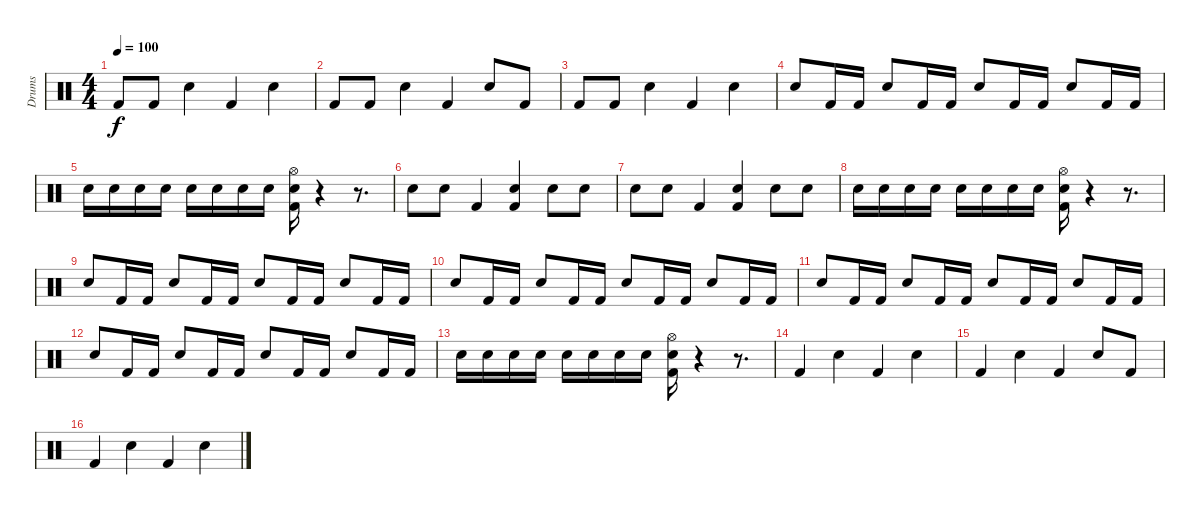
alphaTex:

\track ("Drums" "Drums") {instrument percussion}
\staff {score}
\articulation defaults
\ts (4 4)
\tempo 100
\clef neutral
\ks c "Kick (hit) 2".8{dy f} "Kick (hit) 2".8 "Snare (hit) 2".4 "Kick (hit) 2".4 "Snare (hit) 2".4
|
"Kick (hit) 2".8 "Kick (hit) 2".8 "Snare (hit) 2".4 "Kick (hit) 2".4 "Snare (hit) 2".8 "Kick (hit) 2".8 |
"Kick (hit) 2".8 "Kick (hit) 2".8 "Snare (hit) 2".4 "Kick (hit) 2".4 "Snare (hit) 2".4 |
"Snare (hit) 2".8 "Kick (hit) 2".16 "Kick (hit) 2".16 "Snare (hit) 2".8 "Kick (hit) 2".16 "Kick (hit) 2".16 "Snare (hit) 2".8 "Kick (hit) 2".16 "Kick (hit) 2".16 "Snare (hit) 2".8 "Kick (hit) 2".16 "Kick (hit) 2".16 |
"Snare (hit) 2".16 "Snare (hit) 2".16 "Snare (hit) 2".16 "Snare (hit) 2".16 "Snare (hit) 2".16 "Snare (hit) 2".16 "Snare (hit) 2".16 "Snare (hit) 2".16 ("Kick (hit) 2" "Snare (hit) 2" "Hi-Hat (open)").16 r.4 r.8{d} |
"Snare (hit) 2".8 "Snare (hit) 2".8 "Kick (hit) 2".4 ("Kick (hit) 2" "Snare (hit) 2").4 "Snare (hit) 2".8 "Snare (hit) 2".8 |
"Snare (hit) 2".8 "Snare (hit) 2".8 "Kick (hit) 2".4 ("Kick (hit) 2" "Snare (hit) 2").4 "Snare (hit) 2".8 "Snare (hit) 2".8 |
"Snare (hit) 2".16 "Snare (hit) 2".16 "Snare (hit) 2".16 "Snare (hit) 2".16 "Snare (hit) 2".16 "Snare (hit) 2".16 "Snare (hit) 2".16 "Snare (hit) 2".16 ("Kick (hit) 2" "Snare (hit) 2" "Hi-Hat (open)").16 r.4 r.8{d} |
"Snare (hit) 2".8 "Kick (hit) 2".16 "Kick (hit) 2".16 "Snare (hit) 2".8 "Kick (hit) 2".16 "Kick (hit) 2".16 "Snare (hit) 2".8 "Kick (hit) 2".16 "Kick (hit) 2".16 "Snare (hit) 2".8 "Kick (hit) 2".16 "Kick (hit) 2".16 |
"Snare (hit) 2".8 "Kick (hit) 2".16 "Kick (hit) 2".16 "Snare (hit) 2".8 "Kick (hit) 2".16 "Kick (hit) 2".16 "Snare (hit) 2".8 "Kick (hit) 2".16 "Kick (hit) 2".16 "Snare (hit) 2".8 "Kick (hit) 2".16 "Kick (hit) 2".16 |
"Snare (hit) 2".8 "Kick (hit) 2".16 "Kick (hit) 2".16 "Snare (hit) 2".8 "Kick (hit) 2".16 "Kick (hit) 2".16 "Snare (hit) 2".8 "Kick (hit) 2".16 "Kick (hit) 2".16 "Snare (hit) 2".8 "Kick (hit) 2".16 "Kick (hit) 2".16 |
"Snare (hit) 2".8 "Kick (hit) 2".16 "Kick (hit) 2".16 "Snare (hit) 2".8 "Kick (hit) 2".16 "Kick (hit) 2".16 "Snare (hit) 2".8 "Kick (hit) 2".16 "Kick (hit) 2".16 "Snare (hit) 2".8 "Kick (hit) 2".16 "Kick (hit) 2".16 |
"Snare (hit) 2".16 "Snare (hit) 2".16 "Snare (hit) 2".16 "Snare (hit) 2".16 "Snare (hit) 2".16 "Snare (hit) 2".16 "Snare (hit) 2".16 "Snare (hit) 2".16 ("Kick (hit) 2" "Snare (hit) 2" "Hi-Hat (open)").16 r.4 r.8{d} |
"Kick (hit) 2".4 "Snare (hit) 2".4 "Kick (hit) 2".4 "Snare (hit) 2".4 |
"Kick (hit) 2".4 "Snare (hit) 2".4 "Kick (hit) 2".4 "Snare (hit) 2".8 "Kick (hit) 2".8 |
"Kick (hit) 2".4 "Snare (hit) 2".4 "Kick (hit) 2".4 "Snare (hit) 2".4
